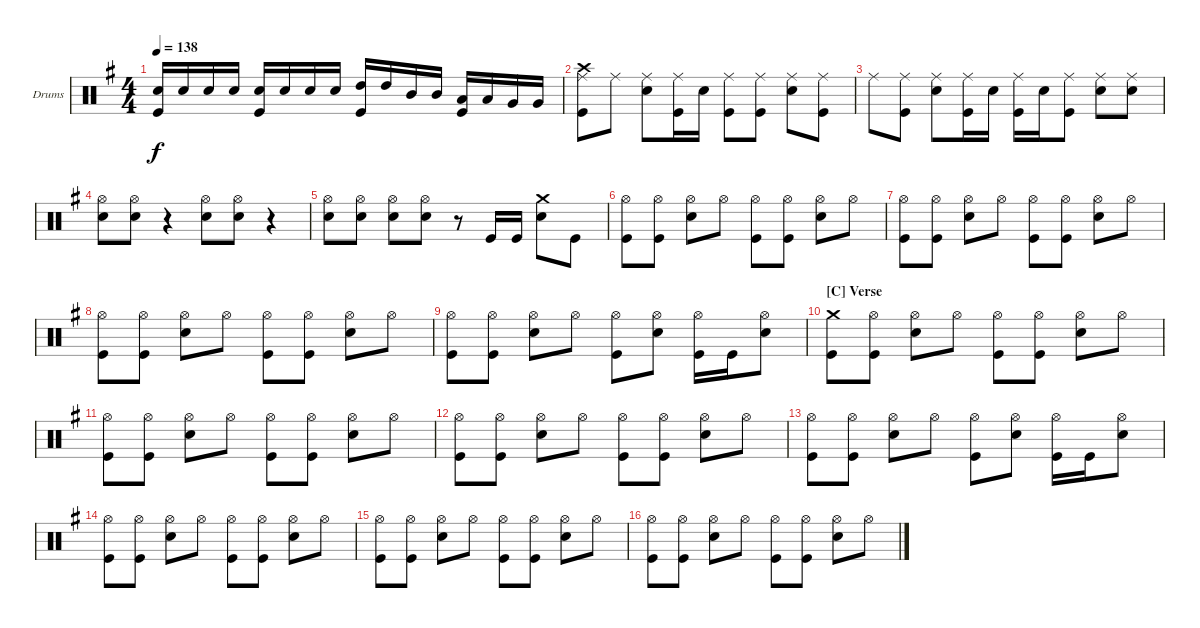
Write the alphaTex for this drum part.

\defaultSystemsLayout 4
\bracketExtendMode groupsimilarinstruments
\firstSystemTrackNameOrientation horizontal
\otherSystemsTrackNameOrientation horizontal
\track ("Drumkit" "Drums") {instrument percussion}
\staff {score}
\articulation defaults
\ts (4 4)
\tempo 138
\clef neutral
\scale
1.04288
\ks g
("Snare (hit) 2" "Kick (hit)").16{dy f} "Snare (hit) 2".16 "Snare (hit) 2".16 "Snare (hit) 2".16 ("Snare (hit) 2" "Kick (hit)").16 "Snare (hit) 2".16 "Snare (hit) 2".16 "Snare (hit) 2".16 ("High Tom (hit)" "Kick (hit)").16 "High Tom (hit)".16 "Mid Tom (hit)".16 "Mid Tom (hit)".16 ("Low Tom (hit)" "Kick (hit)").16 "Low Tom (hit)".16 "Very Low Tom (hit)".16 "Very Low Tom (hit)".16 |
\scale
0.957125 ("Ride (middle)" "Crash high (hit)" "Kick (hit)").8 "Ride (middle)".8 ("Ride (middle)" "Snare (hit) 2").8 ("Ride (middle)" "Kick (hit)").16 "Snare (hit) 2".16 ("Ride (middle)" "Kick (hit)").8 ("Ride (middle)" "Kick (hit)").8 ("Ride (middle)" "Snare (hit) 2").8 ("Ride (middle)" "Kick (hit)").8 |
\scale
1.04288 "Ride (middle)".8 ("Ride (middle)" "Kick (hit)").8 ("Ride (middle)" "Snare (hit) 2").8 ("Ride (middle)" "Kick (hit)").16 "Snare (hit) 2".16 ("Ride (middle)" "Kick (hit)").16 "Snare (hit) 2".16 ("Ride (middle)" "Kick (hit)").8 ("Ride (middle)" "Snare (hit) 2").8 ("Ride (middle)" "Snare (hit) 2").8 |
\scale
0.957125 ("Hi-Hat (open)" "Snare (hit) 2").8 ("Hi-Hat (open)" "Snare (hit) 2").8 r.4 ("Hi-Hat (open)" "Snare (hit) 2").8 ("Hi-Hat (open)" "Snare (hit) 2").8 r.4 |
\scale
1.04288 ("Hi-Hat (open)" "Snare (hit) 2").8 ("Hi-Hat (open)" "Snare (hit) 2").8 ("Hi-Hat (open)" "Snare (hit) 2").8 ("Hi-Hat (open)" "Snare (hit) 2").8 r.8 "Kick (hit)".16 "Kick (hit)".16 ("Crash medium (hit)" "Snare (hit) 2").8 "Kick (hit)".8 |
\scale
0.957125 ("Hi-Hat (open)" "Kick (hit)").8 ("Hi-Hat (open)" "Kick (hit)").8 ("Hi-Hat (open)" "Snare (hit) 2").8 "Hi-Hat (open)".8 ("Hi-Hat (open)" "Kick (hit)").8 ("Hi-Hat (open)" "Kick (hit)").8 ("Hi-Hat (open)" "Snare (hit) 2").8 "Hi-Hat (open)".8 |
\scale
1.04288 ("Hi-Hat (open)" "Kick (hit)").8 ("Hi-Hat (open)" "Kick (hit)").8 ("Hi-Hat (open)" "Snare (hit) 2").8 "Hi-Hat (open)".8 ("Hi-Hat (open)" "Kick (hit)").8 ("Hi-Hat (open)" "Kick (hit)").8 ("Hi-Hat (open)" "Snare (hit) 2").8 "Hi-Hat (open)".8 |
\scale
0.957125 ("Hi-Hat (open)" "Kick (hit)").8 ("Hi-Hat (open)" "Kick (hit)").8 ("Hi-Hat (open)" "Snare (hit) 2").8 "Hi-Hat (open)".8 ("Hi-Hat (open)" "Kick (hit)").8 ("Hi-Hat (open)" "Kick (hit)").8 ("Hi-Hat (open)" "Snare (hit) 2").8 "Hi-Hat (open)".8 |
\scale
1.04288 ("Hi-Hat (open)" "Kick (hit)").8 ("Hi-Hat (open)" "Kick (hit)").8 ("Hi-Hat (open)" "Snare (hit) 2").8 "Hi-Hat (open)".8 ("Hi-Hat (open)" "Kick (hit)").8 ("Hi-Hat (open)" "Snare (hit) 2").8 ("Hi-Hat (open)" "Kick (hit)").16 "Kick (hit)".16 ("Hi-Hat (open)" "Snare (hit) 2").8 |
\section ("C" "Verse")
\scale
0.957125 ("Crash medium (hit)" "Kick (hit)").8 ("Hi-Hat (open)" "Kick (hit)").8 ("Hi-Hat (open)" "Snare (hit) 2").8 "Hi-Hat (open)".8 ("Hi-Hat (open)" "Kick (hit)").8 ("Hi-Hat (open)" "Kick (hit)").8 ("Hi-Hat (open)" "Snare (hit) 2").8 "Hi-Hat (open)".8 |
\scale
1.04288 ("Hi-Hat (open)" "Kick (hit)").8 ("Hi-Hat (open)" "Kick (hit)").8 ("Hi-Hat (open)" "Snare (hit) 2").8 "Hi-Hat (open)".8 ("Hi-Hat (open)" "Kick (hit)").8 ("Hi-Hat (open)" "Kick (hit)").8 ("Hi-Hat (open)" "Snare (hit) 2").8 "Hi-Hat (open)".8 |
\scale
0.957125 ("Hi-Hat (open)" "Kick (hit)").8 ("Hi-Hat (open)" "Kick (hit)").8 ("Hi-Hat (open)" "Snare (hit) 2").8 "Hi-Hat (open)".8 ("Hi-Hat (open)" "Kick (hit)").8 ("Hi-Hat (open)" "Kick (hit)").8 ("Hi-Hat (open)" "Snare (hit) 2").8 "Hi-Hat (open)".8 |
\scale
1.04288 ("Hi-Hat (open)" "Kick (hit)").8 ("Hi-Hat (open)" "Kick (hit)").8 ("Hi-Hat (open)" "Snare (hit) 2").8 "Hi-Hat (open)".8 ("Hi-Hat (open)" "Kick (hit)").8 ("Hi-Hat (open)" "Snare (hit) 2").8 ("Hi-Hat (open)" "Kick (hit)").16 "Kick (hit)".16 ("Hi-Hat (open)" "Snare (hit) 2").8 |
\scale
0.957125 ("Hi-Hat (open)" "Kick (hit)").8 ("Hi-Hat (open)" "Kick (hit)").8 ("Hi-Hat (open)" "Snare (hit) 2").8 "Hi-Hat (open)".8 ("Hi-Hat (open)" "Kick (hit)").8 ("Hi-Hat (open)" "Kick (hit)").8 ("Hi-Hat (open)" "Snare (hit) 2").8 "Hi-Hat (open)".8 |
\scale
1.04288 ("Hi-Hat (open)" "Kick (hit)").8 ("Hi-Hat (open)" "Kick (hit)").8 ("Hi-Hat (open)" "Snare (hit) 2").8 "Hi-Hat (open)".8 ("Hi-Hat (open)" "Kick (hit)").8 ("Hi-Hat (open)" "Kick (hit)").8 ("Hi-Hat (open)" "Snare (hit) 2").8 "Hi-Hat (open)".8 |
\scale
0.957125 ("Hi-Hat (open)" "Kick (hit)").8 ("Hi-Hat (open)" "Kick (hit)").8 ("Hi-Hat (open)" "Snare (hit) 2").8 "Hi-Hat (open)".8 ("Hi-Hat (open)" "Kick (hit)").8 ("Hi-Hat (open)" "Kick (hit)").8 ("Hi-Hat (open)" "Snare (hit) 2").8 "Hi-Hat (open)".8
